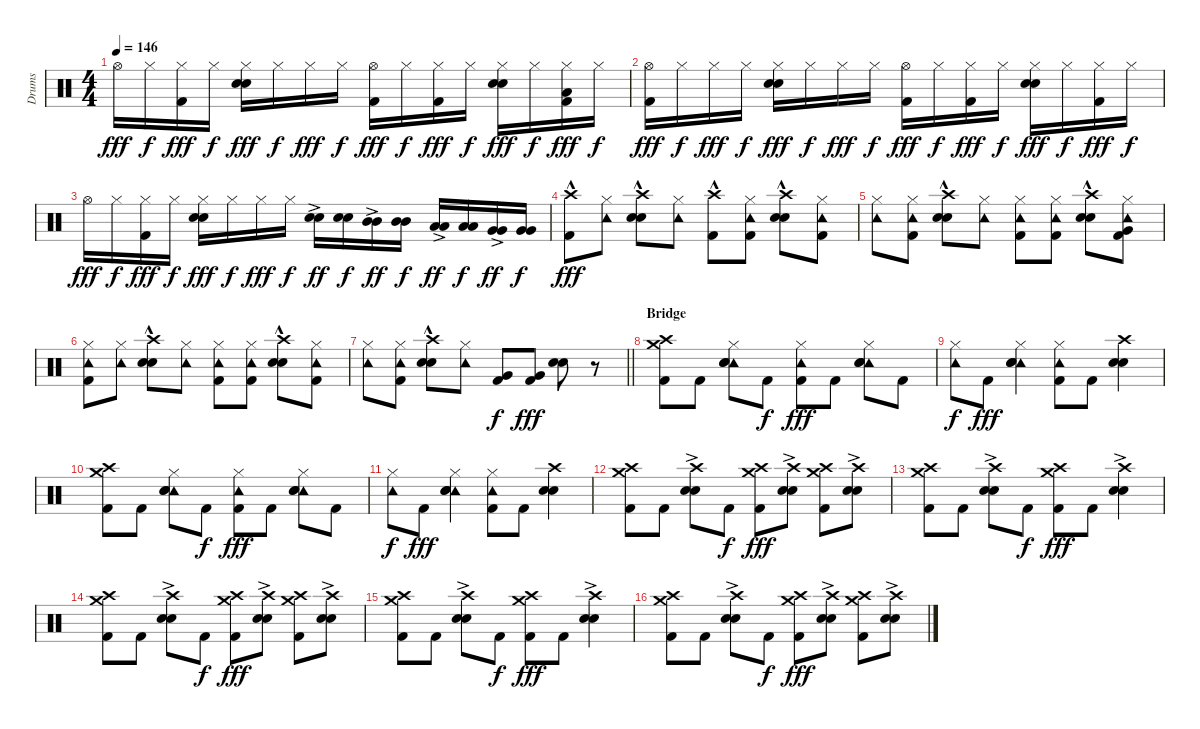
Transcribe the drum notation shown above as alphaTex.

\track ("Drums" "Drums") {instrument percussion}
\staff {score}
\articulation defaults
\ts (4 4)
\tempo 146
\clef neutral
\ks c "Hi-Hat (open)".16{dy fff} "Hi-Hat (closed)".16{dy f}
("Hi-Hat (closed)" "Kick (hit) 2").16{dy fff} "Hi-Hat (closed)".16{dy f} ("Hi-Hat (closed)" "Electric Snare (hit)" "Electric Snare (hit)").16{dy fff} "Hi-Hat (closed)".16{dy f} "Hi-Hat (closed)".16{dy fff} "Hi-Hat (closed)".16{dy f} ("Hi-Hat (open)" "Kick (hit) 2").16{dy fff} "Hi-Hat (closed)".16{dy f} ("Hi-Hat (closed)" "Kick (hit) 2").16{dy fff} "Hi-Hat (closed)".16{dy f} ("Hi-Hat (closed)" "Electric Snare (hit)" "Electric Snare (hit)").16{dy fff} "Hi-Hat (closed)".16{dy f} ("Hi-Hat (closed)" "Low Tom (hit)" "Kick (hit) 2").16{dy fff} "Hi-Hat (closed)".16{dy f} |
("Hi-Hat (open)" "Kick (hit) 2").16{dy fff} "Hi-Hat (closed)".16{dy f} "Hi-Hat (closed)".16{dy fff} "Hi-Hat (closed)".16{dy f} ("Hi-Hat (closed)" "Electric Snare (hit)" "Electric Snare (hit)").16{dy fff} "Hi-Hat (closed)".16{dy f} "Hi-Hat (closed)".16{dy fff} "Hi-Hat (closed)".16{dy f} ("Hi-Hat (open)" "Kick (hit) 2").16{dy fff} "Hi-Hat (closed)".16{dy f} ("Hi-Hat (closed)" "Kick (hit) 2").16{dy fff} "Hi-Hat (closed)".16{dy f} ("Hi-Hat (closed)" "Electric Snare (hit)" "Electric Snare (hit)").16{dy fff} "Hi-Hat (closed)".16{dy f} ("Hi-Hat (closed)" "Kick (hit) 2").16{dy fff} "Hi-Hat (closed)".16{dy f} |
"Hi-Hat (open)".16{dy fff} "Hi-Hat (closed)".16{dy f} ("Hi-Hat (closed)" "Kick (hit) 2").16{dy fff} "Hi-Hat (closed)".16{dy f} ("Hi-Hat (closed)" "Electric Snare (hit)" "Electric Snare (hit)").16{dy fff} "Hi-Hat (closed)".16{dy f} "Hi-Hat (closed)".16{dy fff} "Hi-Hat (closed)".16{dy f} ("Electric Snare (hit)"{ac} "Electric Snare (hit)"{ac}).16{dy ff} ("Electric Snare (hit)" "Electric Snare (hit)").16{dy f} ("Mid Tom (hit)"{ac} "Mid Tom (hit)"{ac}).16{dy ff} ("Mid Tom (hit)" "Mid Tom (hit)").16{dy f} ("Low Tom (hit)"{ac} "Low Tom (hit)"{ac}).16{dy ff} ("Low Tom (hit)" "Low Tom (hit)").16{dy f} ("Very Low Tom (hit)"{ac} "Very Low Tom (hit)"{ac}).16{dy ff} ("Very Low Tom (hit)" "Very Low Tom (hit)").16{dy f} |
("Crash high (hit)"{hac} "Kick (hit) 2").8{dy fff} ("Tambourine (hit)" "Hi-Hat (closed)").8 ("Crash high (hit)"{hac} "Electric Snare (hit)" "Electric Snare (hit)").8 ("Tambourine (hit)" "Hi-Hat (closed)").8 ("Crash high (hit)"{hac} "Kick (hit) 2").8 ("Tambourine (hit)" "Hi-Hat (closed)" "Kick (hit) 2").8 ("Crash high (hit)"{hac} "Electric Snare (hit)" "Electric Snare (hit)").8 ("Tambourine (hit)" "Hi-Hat (closed)" "Kick (hit) 2").8 |
("Tambourine (hit)" "Hi-Hat (closed)").8 ("Tambourine (hit)" "Hi-Hat (closed)" "Kick (hit) 2").8 ("Crash high (hit)"{hac} "Electric Snare (hit)" "Electric Snare (hit)").8 ("Tambourine (hit)" "Hi-Hat (closed)").8 ("Tambourine (hit)" "Hi-Hat (closed)" "Kick (hit) 2").8 ("Tambourine (hit)" "Hi-Hat (closed)" "Kick (hit) 2").8 ("Crash high (hit)"{hac} "Electric Snare (hit)" "Electric Snare (hit)").8 ("Tambourine (hit)" "Hi-Hat (closed)" "Very Low Tom (hit)" "Kick (hit) 2").8 |
("Tambourine (hit)" "Hi-Hat (closed)" "Kick (hit) 2").8 ("Tambourine (hit)" "Hi-Hat (closed)").8 ("Crash high (hit)"{hac} "Electric Snare (hit)" "Electric Snare (hit)").8 ("Tambourine (hit)" "Hi-Hat (closed)").8 ("Tambourine (hit)" "Hi-Hat (closed)" "Kick (hit) 2").8 ("Tambourine (hit)" "Hi-Hat (closed)" "Kick (hit) 2").8 ("Crash high (hit)"{hac} "Electric Snare (hit)" "Electric Snare (hit)").8 ("Tambourine (hit)" "Hi-Hat (closed)" "Kick (hit) 2").8 |
\barLineRight lightlight
("Tambourine (hit)" "Hi-Hat (closed)").8 ("Tambourine (hit)" "Hi-Hat (closed)" "Kick (hit) 2").8 ("Crash high (hit)"{hac} "Electric Snare (hit)" "Electric Snare (hit)").8 ("Tambourine (hit)" "Hi-Hat (closed)").8 ("Very Low Tom (hit)" "Kick (hit) 2").8{dy f} ("Very Low Tom (hit)" "Kick (hit) 2").8{dy fff} ("Electric Snare (hit)" "Electric Snare (hit)").8 r.8 |
\section ("" "Bridge")
("Crash high (hit)" "Crash medium (hit)" "Kick (hit) 2").8 "Kick (hit) 2".8 ("Tambourine (hit)" "Hi-Hat (closed)" "Electric Snare (hit)" "Electric Snare (hit)").8 "Kick (hit) 2".8{dy f} ("Tambourine (hit)" "Hi-Hat (closed)" "Kick (hit) 2").8{dy fff} "Kick (hit) 2".8 ("Tambourine (hit)" "Hi-Hat (closed)" "Electric Snare (hit)" "Electric Snare (hit)").8 "Kick (hit) 2".8 |
("Tambourine (hit)" "Hi-Hat (closed)").8{dy f} "Kick (hit) 2".8{dy fff} ("Tambourine (hit)" "Hi-Hat (closed)" "Electric Snare (hit)" "Electric Snare (hit)").4 ("Tambourine (hit)" "Hi-Hat (closed)" "Kick (hit) 2").8 "Kick (hit) 2".8 ("Crash high (hit)" "Electric Snare (hit)" "Electric Snare (hit)").4 |
("Crash high (hit)" "Crash medium (hit)" "Kick (hit) 2").8 "Kick (hit) 2".8 ("Tambourine (hit)" "Hi-Hat (closed)" "Electric Snare (hit)" "Electric Snare (hit)").8 "Kick (hit) 2".8{dy f} ("Tambourine (hit)" "Hi-Hat (closed)" "Kick (hit) 2").8{dy fff} "Kick (hit) 2".8 ("Tambourine (hit)" "Hi-Hat (closed)" "Electric Snare (hit)" "Electric Snare (hit)").8 "Kick (hit) 2".8 |
("Tambourine (hit)" "Hi-Hat (closed)").8{dy f} "Kick (hit) 2".8{dy fff} ("Tambourine (hit)" "Hi-Hat (closed)" "Electric Snare (hit)" "Electric Snare (hit)").4 ("Tambourine (hit)" "Hi-Hat (closed)" "Kick (hit) 2").8 "Kick (hit) 2".8 ("Crash high (hit)" "Electric Snare (hit)" "Electric Snare (hit)").4 |
("Crash high (hit)" "Crash medium (hit)" "Kick (hit) 2").8 "Kick (hit) 2".8 ("Crash high (hit)"{ac} "Electric Snare (hit)"{ac} "Electric Snare (hit)"{ac}).8 "Kick (hit) 2".8{dy f} ("Crash high (hit)" "Crash medium (hit)" "Kick (hit) 2").8{dy fff} ("Crash high (hit)"{ac} "Electric Snare (hit)"{ac} "Electric Snare (hit)"{ac}).8 ("Crash high (hit)" "Crash medium (hit)" "Kick (hit) 2").8 ("Crash high (hit)"{ac} "Electric Snare (hit)"{ac} "Electric Snare (hit)"{ac}).8 |
("Crash high (hit)" "Crash medium (hit)" "Kick (hit) 2").8 "Kick (hit) 2".8 ("Crash high (hit)"{ac} "Electric Snare (hit)"{ac} "Electric Snare (hit)"{ac}).8 "Kick (hit) 2".8{dy f} ("Crash high (hit)" "Crash medium (hit)" "Kick (hit) 2").8{dy fff} "Kick (hit) 2".8 ("Crash high (hit)"{ac} "Electric Snare (hit)"{ac} "Electric Snare (hit)"{ac}).4 |
("Crash high (hit)" "Crash medium (hit)" "Kick (hit) 2").8 "Kick (hit) 2".8 ("Crash high (hit)"{ac} "Electric Snare (hit)"{ac} "Electric Snare (hit)"{ac}).8 "Kick (hit) 2".8{dy f} ("Crash high (hit)" "Crash medium (hit)" "Kick (hit) 2").8{dy fff} ("Crash high (hit)"{ac} "Electric Snare (hit)"{ac} "Electric Snare (hit)"{ac}).8 ("Crash high (hit)" "Crash medium (hit)" "Kick (hit) 2").8 ("Crash high (hit)"{ac} "Electric Snare (hit)"{ac} "Electric Snare (hit)"{ac}).8 |
("Crash high (hit)" "Crash medium (hit)" "Kick (hit) 2").8 "Kick (hit) 2".8 ("Crash high (hit)"{ac} "Electric Snare (hit)"{ac} "Electric Snare (hit)"{ac}).8 "Kick (hit) 2".8{dy f} ("Crash high (hit)" "Crash medium (hit)" "Kick (hit) 2").8{dy fff} "Kick (hit) 2".8 ("Crash high (hit)"{ac} "Electric Snare (hit)"{ac} "Electric Snare (hit)"{ac}).4 |
("Crash high (hit)" "Crash medium (hit)" "Kick (hit) 2").8 "Kick (hit) 2".8 ("Crash high (hit)"{ac} "Electric Snare (hit)"{ac} "Electric Snare (hit)"{ac}).8 "Kick (hit) 2".8{dy f} ("Crash high (hit)" "Crash medium (hit)" "Kick (hit) 2").8{dy fff} ("Crash high (hit)"{ac} "Electric Snare (hit)"{ac} "Electric Snare (hit)"{ac}).8 ("Crash high (hit)" "Crash medium (hit)" "Kick (hit) 2").8 ("Crash high (hit)"{ac} "Electric Snare (hit)"{ac} "Electric Snare (hit)"{ac}).8
